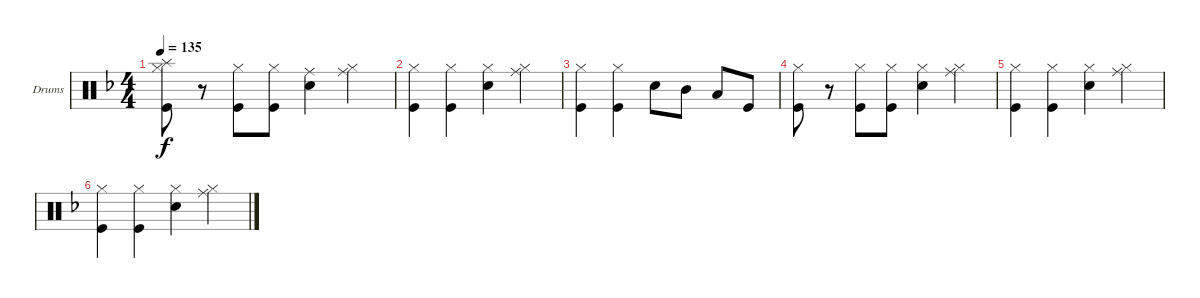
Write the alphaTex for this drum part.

\bracketExtendMode groupsimilarinstruments
\firstSystemTrackNameOrientation horizontal
\otherSystemsTrackNameOrientation horizontal
\track ("Drumkitover" "Drums") {instrument percussion}
\staff {score}
\articulation defaults
\ts (4 4)
\tempo 135
\clef neutral
\ks dminor
("Hi-Hat (closed)" "Kick (hit)" "Splash (hit)").8{dy f} r.8 ("Hi-Hat (closed)" "Kick (hit)").8 ("Hi-Hat (closed)" "Kick (hit)").8 ("Snare (hit) 2" "Ride (middle)").4 ("Hi-Hat (closed)" "Ride (middle)").4 |
("Hi-Hat (closed)" "Kick (hit)").4 ("Hi-Hat (closed)" "Kick (hit)").4 ("Snare (hit) 2" "Hi-Hat (closed)").4 ("Hi-Hat (closed)" "Ride (middle)").4 |
("Hi-Hat (closed)" "Kick (hit)").4 ("Hi-Hat (closed)" "Kick (hit)").4 "Snare (hit) 2".8 "Mid Tom (hit)".8 "Low Tom (hit)".8 "Kick (hit)".8 |
("Kick (hit)" "Hi-Hat (closed)").8 r.8 ("Hi-Hat (closed)" "Kick (hit)").8 ("Hi-Hat (closed)" "Kick (hit)").8 ("Snare (hit) 2" "Hi-Hat (closed)").4 ("Hi-Hat (closed)" "Ride (middle)").4 |
("Hi-Hat (closed)" "Kick (hit)").4 ("Hi-Hat (closed)" "Kick (hit)").4 ("Snare (hit) 2" "Hi-Hat (closed)").4 ("Hi-Hat (closed)" "Ride (middle)").4 |
("Hi-Hat (closed)" "Kick (hit)").4 ("Hi-Hat (closed)" "Kick (hit)").4 ("Snare (hit) 2" "Hi-Hat (closed)").4 ("Hi-Hat (closed)" "Ride (middle)").4
